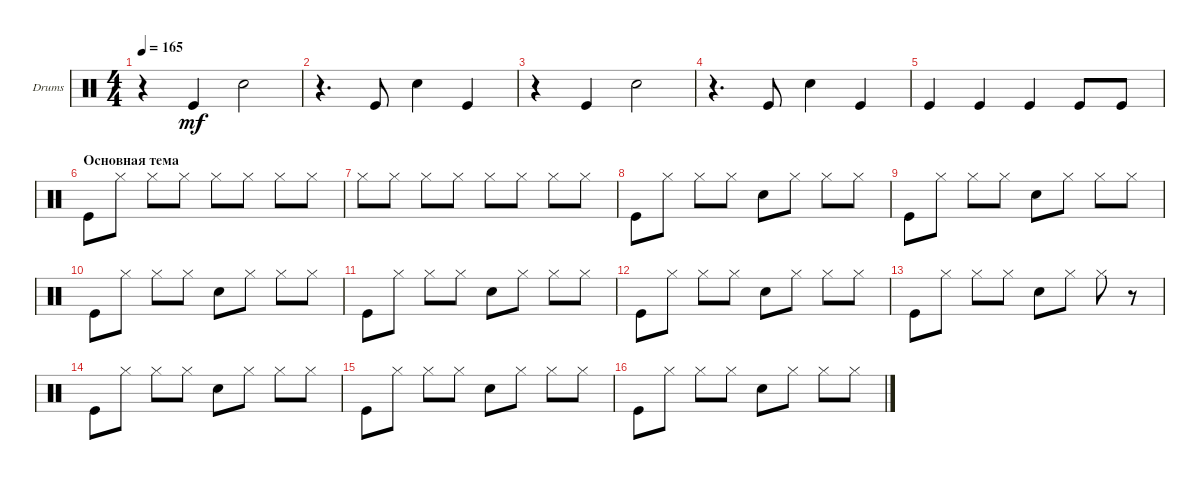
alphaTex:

\bracketExtendMode groupsimilarinstruments
\firstSystemTrackNameOrientation horizontal
\otherSystemsTrackNameOrientation horizontal
\track ("Pen Tapping" "Drums") {instrument percussion}
\staff {score}
\articulation defaults
\ts (4 4)
\tempo 165
\clef neutral
\scale
0.333333
\ks c
r.4{dy mf} "Kick (hit)".4 "Snare (hit) 2".2 |
\scale
0.333333 r.4{d} "Kick (hit)".8 "Snare (hit) 2".4 "Kick (hit)".4 |
\scale
0.333333 r.4 "Kick (hit)".4 "Snare (hit) 2".2 |
\scale
0.333333 r.4{d} "Kick (hit)".8 "Snare (hit) 2".4 "Kick (hit)".4 |
\scale
0.311475 "Kick (hit)".4 "Kick (hit)".4 "Kick (hit)".4 "Kick (hit)".8 "Kick (hit)".8 |
\section ("" "Основная тема")
\scale
0.377049 "Kick (hit)".8 "Hi-Hat (closed)".8 "Hi-Hat (closed)".8 "Hi-Hat (closed)".8 "Hi-Hat (closed)".8 "Hi-Hat (closed)".8 "Hi-Hat (closed)".8 "Hi-Hat (closed)".8 |
\scale
0.311475 "Hi-Hat (closed)".8 "Hi-Hat (closed)".8 "Hi-Hat (closed)".8 "Hi-Hat (closed)".8 "Hi-Hat (closed)".8 "Hi-Hat (closed)".8 "Hi-Hat (closed)".8 "Hi-Hat (closed)".8 |
\scale
0.333333 "Kick (hit)".8 "Hi-Hat (closed)".8 "Hi-Hat (closed)".8 "Hi-Hat (closed)".8 "Snare (hit) 2".8 "Hi-Hat (closed)".8 "Hi-Hat (closed)".8 "Hi-Hat (closed)".8 |
\scale
0.333333 "Kick (hit)".8 "Hi-Hat (closed)".8 "Hi-Hat (closed)".8 "Hi-Hat (closed)".8 "Snare (hit) 2".8 "Hi-Hat (closed)".8 "Hi-Hat (closed)".8 "Hi-Hat (closed)".8 |
\scale
0.333333 "Kick (hit)".8 "Hi-Hat (closed)".8 "Hi-Hat (closed)".8 "Hi-Hat (closed)".8 "Snare (hit) 2".8 "Hi-Hat (closed)".8 "Hi-Hat (closed)".8 "Hi-Hat (closed)".8 |
\scale
0.322034 "Kick (hit)".8 "Hi-Hat (closed)".8 "Hi-Hat (closed)".8 "Hi-Hat (closed)".8 "Snare (hit) 2".8 "Hi-Hat (closed)".8 "Hi-Hat (closed)".8 "Hi-Hat (closed)".8 |
\scale
0.322034 "Kick (hit)".8 "Hi-Hat (closed)".8 "Hi-Hat (closed)".8 "Hi-Hat (closed)".8 "Snare (hit) 2".8 "Hi-Hat (closed)".8 "Hi-Hat (closed)".8 "Hi-Hat (closed)".8 |
\scale
0.355932 "Kick (hit)".8 "Hi-Hat (closed)".8 "Hi-Hat (closed)".8 "Hi-Hat (closed)".8 "Snare (hit) 2".8 "Hi-Hat (closed)".8 "Hi-Hat (closed)".8 r.8 |
\scale
0.333333 "Kick (hit)".8 "Hi-Hat (closed)".8 "Hi-Hat (closed)".8 "Hi-Hat (closed)".8 "Snare (hit) 2".8 "Hi-Hat (closed)".8 "Hi-Hat (closed)".8 "Hi-Hat (closed)".8 |
\scale
0.333333 "Kick (hit)".8 "Hi-Hat (closed)".8 "Hi-Hat (closed)".8 "Hi-Hat (closed)".8 "Snare (hit) 2".8 "Hi-Hat (closed)".8 "Hi-Hat (closed)".8 "Hi-Hat (closed)".8 |
\scale
0.333333 "Kick (hit)".8 "Hi-Hat (closed)".8 "Hi-Hat (closed)".8 "Hi-Hat (closed)".8 "Snare (hit) 2".8 "Hi-Hat (closed)".8 "Hi-Hat (closed)".8 "Hi-Hat (closed)".8
